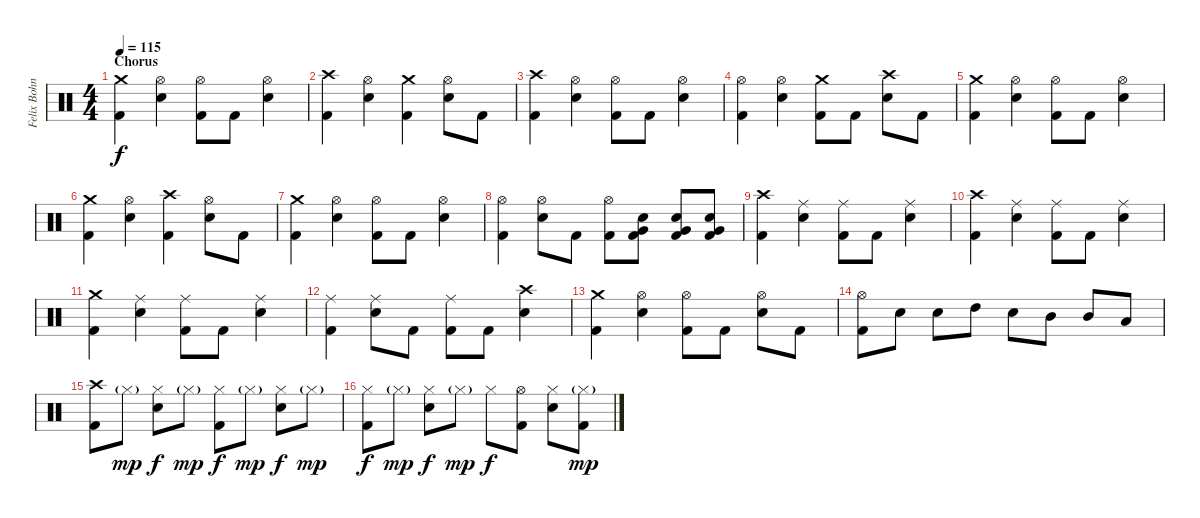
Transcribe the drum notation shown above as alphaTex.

\track ("Felix Bohnke" "Felix Bohn") {instrument percussion}
\staff {score}
\articulation defaults
\ts (4 4)
\section ("" "Chorus")
\tempo 115
\clef neutral
\ks c
("Crash medium (hit)" "Kick (hit) 2").4{dy f} ("Hi-Hat (open)" "Electric Snare (hit)").4 ("Hi-Hat (open)" "Kick (hit) 2").8 "Kick (hit) 2".8 ("Hi-Hat (open)" "Electric Snare (hit)").4 |
("Crash high (hit)" "Kick (hit) 2").4 ("Hi-Hat (open)" "Electric Snare (hit)").4 ("Crash medium (hit)" "Kick (hit) 2").4 ("Hi-Hat (open)" "Electric Snare (hit)").8 "Kick (hit) 2".8 |
("Crash high (hit)" "Kick (hit) 2").4 ("Hi-Hat (open)" "Electric Snare (hit)").4 ("Hi-Hat (open)" "Kick (hit) 2").8 "Kick (hit) 2".8 ("Hi-Hat (open)" "Electric Snare (hit)").4 |
("Hi-Hat (open)" "Kick (hit) 2").4 ("Hi-Hat (open)" "Electric Snare (hit)").4 ("Crash medium (hit)" "Kick (hit) 2").8 "Kick (hit) 2".8 ("Crash high (hit)" "Electric Snare (hit)").8 "Kick (hit) 2".8 |
("Crash medium (hit)" "Kick (hit) 2").4 ("Hi-Hat (open)" "Electric Snare (hit)").4 ("Hi-Hat (open)" "Kick (hit) 2").8 "Kick (hit) 2".8 ("Hi-Hat (open)" "Electric Snare (hit)").4 |
("Crash medium (hit)" "Kick (hit) 2").4 ("Hi-Hat (open)" "Electric Snare (hit)").4 ("Crash high (hit)" "Kick (hit) 2").4 ("Hi-Hat (open)" "Electric Snare (hit)").8 "Kick (hit) 2".8 |
("Crash medium (hit)" "Kick (hit) 2").4 ("Hi-Hat (open)" "Electric Snare (hit)").4 ("Hi-Hat (open)" "Kick (hit) 2").8 "Kick (hit) 2".8 ("Hi-Hat (open)" "Electric Snare (hit)").4 |
("Hi-Hat (open)" "Kick (hit) 2").4 ("Hi-Hat (open)" "Electric Snare (hit)").8 "Kick (hit) 2".8 ("Hi-Hat (open)" "Kick (hit) 2").8 ("Very Low Tom (hit)" "Electric Snare (hit)" "Kick (hit) 2").8 ("Very Low Tom (hit)" "Electric Snare (hit)" "Kick (hit) 2").8 ("Very Low Tom (hit)" "Electric Snare (hit)" "Kick (hit) 2").8 |
("Crash high (hit)" "Kick (hit) 2").4 ("Ride (middle)" "Electric Snare (hit)").4 ("Ride (middle)" "Kick (hit) 2").8 "Kick (hit) 2".8 ("Ride (middle)" "Electric Snare (hit)").4 |
("Crash high (hit)" "Kick (hit) 2").4 ("Ride (middle)" "Electric Snare (hit)").4 ("Ride (middle)" "Kick (hit) 2").8 "Kick (hit) 2".8 ("Ride (middle)" "Electric Snare (hit)").4 |
("Crash medium (hit)" "Kick (hit) 2").4 ("Ride (middle)" "Electric Snare (hit)").4 ("Ride (middle)" "Kick (hit) 2").8 "Kick (hit) 2".8 ("Ride (middle)" "Electric Snare (hit)").4 |
("Ride (middle)" "Kick (hit) 2").4 ("Ride (middle)" "Electric Snare (hit)").8 "Kick (hit) 2".8 ("Ride (middle)" "Kick (hit) 2").8 "Kick (hit) 2".8 ("Crash high (hit)" "Electric Snare (hit)").4 |
("Crash medium (hit)" "Kick (hit) 2").4 ("Hi-Hat (open)" "Electric Snare (hit)").4 ("Hi-Hat (open)" "Kick (hit) 2").8 "Kick (hit) 2".8 ("Hi-Hat (open)" "Electric Snare (hit)").8 "Kick (hit) 2".8 |
("Hi-Hat (open)" "Kick (hit) 2").8 "Electric Snare (hit)".8 "Electric Snare (hit)".8 "High Tom (hit)".8 "Electric Snare (hit)".8 "Mid Tom (hit)".8 "Mid Tom (hit)".8 "Low Tom (hit)".8 |
("Crash high (hit)" "Kick (hit) 2").8 "Hi-Hat (closed)"{g}.8{dy mp} ("Hi-Hat (closed)" "Electric Snare (hit)").8{dy f} "Hi-Hat (closed)"{g}.8{dy mp} ("Hi-Hat (closed)" "Kick (hit) 2").8{dy f} "Hi-Hat (closed)"{g}.8{dy mp} ("Hi-Hat (closed)" "Electric Snare (hit)").8{dy f} "Hi-Hat (closed)"{g}.8{dy mp} |
("Hi-Hat (closed)" "Kick (hit) 2").8{dy f} "Hi-Hat (closed)"{g}.8{dy mp} ("Hi-Hat (closed)" "Electric Snare (hit)").8{dy f} "Hi-Hat (closed)"{g}.8{dy mp} "Hi-Hat (closed)".8{dy f} ("Hi-Hat (open)" "Kick (hit) 2").8 ("Hi-Hat (closed)" "Electric Snare (hit)").8 ("Hi-Hat (closed)"{g} "Kick (hit) 2").8{dy mp}
